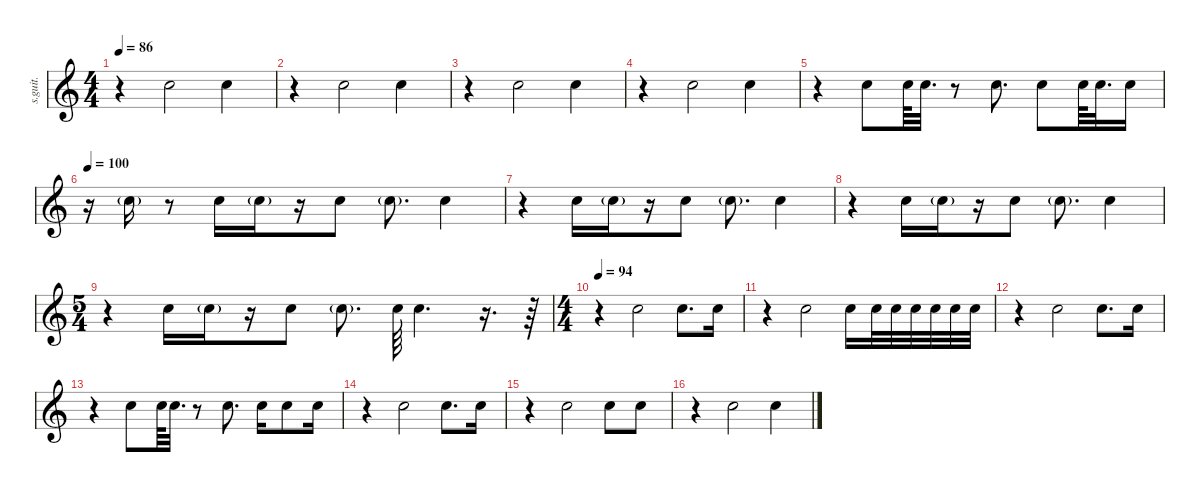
\defaultSystemsLayout 4
\hideDynamics
\bracketExtendMode nobrackets
\track ("David Silveria (Snare Effect)" "s.guit.") {instrument percussion}
\staff {score}
\articulation defaults
\ts (4 4)
\tempo 86
\clef g2
\ks c
r.4{dy f} "Hand Clap (hit)".2 "Hand Clap (hit)".4 |
r.4 "Hand Clap (hit)".2 "Hand Clap (hit)".4 |
r.4 "Hand Clap (hit)".2 "Hand Clap (hit)".4 |
r.4 "Hand Clap (hit)".2 "Hand Clap (hit)".4 |
r.4 "Hand Clap (hit)".8 "Hand Clap (hit)".64 "Hand Clap (hit)".32{d} r.8 "Hand Clap (hit)".8{d} "Hand Clap (hit)".8 "Hand Clap (hit)".64 "Hand Clap (hit)".32{d} "Hand Clap (hit)".16 |
\tempo 100
r.16 "Hand Clap (hit)"{g}.16{dy p} r.8 "Hand Clap (hit)".16{dy f} "Hand Clap (hit)"{g}.16{dy mf} r.16 "Hand Clap (hit)".8{dy f} "Hand Clap (hit)"{g}.8{d dy mp} "Hand Clap (hit)".4{dy f} |
r.4 "Hand Clap (hit)".16 "Hand Clap (hit)"{g}.16{dy mf} r.16 "Hand Clap (hit)".8{dy f} "Hand Clap (hit)"{g}.8{d dy mp} "Hand Clap (hit)".4{dy f} |
r.4 "Hand Clap (hit)".16 "Hand Clap (hit)"{g}.16{dy mf} r.16 "Hand Clap (hit)".8{dy f} "Hand Clap (hit)"{g}.8{d dy mp} "Hand Clap (hit)".4{dy f} |
\ts (5 4)
\beaming (8 2 2 2 2)
r.4 "Hand Clap (hit)".16 "Hand Clap (hit)"{g}.16{dy mf} r.16 "Hand Clap (hit)".8{dy f} "Hand Clap (hit)"{g}.8{d dy mp} "Hand Clap (hit)".64{dy f} "Hand Clap (hit)".4{d} r.16{d} r.64 |
\ts (4 4)
\beaming (8 2 2 2 2)
\tempo 94
r.4 "Hand Clap (hit)".2 "Hand Clap (hit)".8{d} "Hand Clap (hit)".16 |
r.4 "Hand Clap (hit)".2 "Hand Clap (hit)".16 "Hand Clap (hit)".32 "Hand Clap (hit)".32 "Hand Clap (hit)".32 "Hand Clap (hit)".32 "Hand Clap (hit)".32 "Hand Clap (hit)".32 |
r.4 "Hand Clap (hit)".2 "Hand Clap (hit)".8{d} "Hand Clap (hit)".16 |
r.4 "Hand Clap (hit)".8 "Hand Clap (hit)".64 "Hand Clap (hit)".32{d} r.8 "Hand Clap (hit)".8{d} "Hand Clap (hit)".16 "Hand Clap (hit)".8 "Hand Clap (hit)".16 |
r.4 "Hand Clap (hit)".2 "Hand Clap (hit)".8{d} "Hand Clap (hit)".16 |
r.4 "Hand Clap (hit)".2 "Hand Clap (hit)".8 "Hand Clap (hit)".8 |
r.4 "Hand Clap (hit)".2 "Hand Clap (hit)".4
